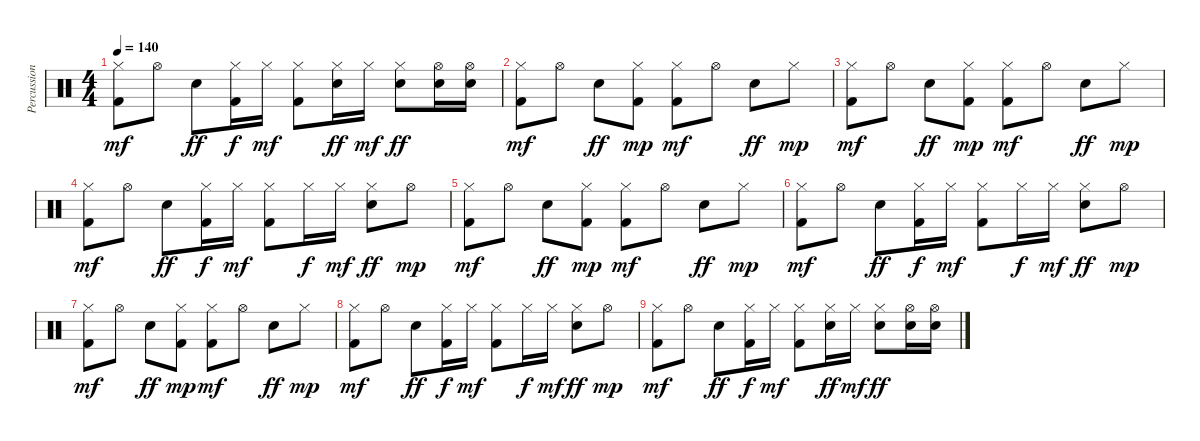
\track ("Percussions" "Percussion") {instrument percussion}
\staff {score}
\articulation defaults
\ts (4 4)
\tempo 140
\clef neutral
\ks c
("Hi-Hat (closed)" "Kick (hit) 2").8{dy mf} "Hi-Hat (open)".8 "Electric Snare (hit)".8{dy ff} ("Hi-Hat (closed)" "Kick (hit) 2").16{dy f} "Hi-Hat (closed)".16{dy mf} ("Hi-Hat (closed)" "Kick (hit) 2").8 ("Hi-Hat (closed)" "Electric Snare (hit)").16{dy ff} "Hi-Hat (closed)".16{dy mf} ("Hi-Hat (closed)" "Electric Snare (hit)").8{dy ff} ("Hi-Hat (open)" "Electric Snare (hit)").16 ("Hi-Hat (open)" "Electric Snare (hit)").16 |
("Hi-Hat (closed)" "Kick (hit) 2").8{dy mf} "Hi-Hat (open)".8 "Electric Snare (hit)".8{dy ff} ("Hi-Hat (closed)" "Kick (hit) 2").8{dy mp} ("Hi-Hat (closed)" "Kick (hit) 2").8{dy mf} "Hi-Hat (open)".8 "Electric Snare (hit)".8{dy ff} "Hi-Hat (closed)".8{dy mp} |
("Hi-Hat (closed)" "Kick (hit) 2").8{dy mf} "Hi-Hat (open)".8 "Electric Snare (hit)".8{dy ff} ("Hi-Hat (closed)" "Kick (hit) 2").8{dy mp} ("Hi-Hat (closed)" "Kick (hit) 2").8{dy mf} "Hi-Hat (open)".8 "Electric Snare (hit)".8{dy ff} "Hi-Hat (closed)".8{dy mp} |
("Hi-Hat (closed)" "Kick (hit) 2").8{dy mf} "Hi-Hat (open)".8 "Electric Snare (hit)".8{dy ff} ("Hi-Hat (closed)" "Kick (hit) 2").16{dy f} "Hi-Hat (closed)".16{dy mf} ("Hi-Hat (closed)" "Kick (hit) 2").8 "Hi-Hat (closed)".16{dy f} "Hi-Hat (closed)".16{dy mf} ("Hi-Hat (closed)" "Electric Snare (hit)").8{dy ff} "Hi-Hat (open)".8{dy mp} |
("Hi-Hat (closed)" "Kick (hit) 2").8{dy mf} "Hi-Hat (open)".8 "Electric Snare (hit)".8{dy ff} ("Hi-Hat (closed)" "Kick (hit) 2").8{dy mp} ("Hi-Hat (closed)" "Kick (hit) 2").8{dy mf} "Hi-Hat (open)".8 "Electric Snare (hit)".8{dy ff} "Hi-Hat (closed)".8{dy mp} |
("Hi-Hat (closed)" "Kick (hit) 2").8{dy mf} "Hi-Hat (open)".8 "Electric Snare (hit)".8{dy ff} ("Hi-Hat (closed)" "Kick (hit) 2").16{dy f} "Hi-Hat (closed)".16{dy mf} ("Hi-Hat (closed)" "Kick (hit) 2").8 "Hi-Hat (closed)".16{dy f} "Hi-Hat (closed)".16{dy mf} ("Hi-Hat (closed)" "Electric Snare (hit)").8{dy ff} "Hi-Hat (open)".8{dy mp} |
("Hi-Hat (closed)" "Kick (hit) 2").8{dy mf} "Hi-Hat (open)".8 "Electric Snare (hit)".8{dy ff} ("Hi-Hat (closed)" "Kick (hit) 2").8{dy mp} ("Hi-Hat (closed)" "Kick (hit) 2").8{dy mf} "Hi-Hat (open)".8 "Electric Snare (hit)".8{dy ff} "Hi-Hat (closed)".8{dy mp} |
("Hi-Hat (closed)" "Kick (hit) 2").8{dy mf} "Hi-Hat (open)".8 "Electric Snare (hit)".8{dy ff} ("Hi-Hat (closed)" "Kick (hit) 2").16{dy f} "Hi-Hat (closed)".16{dy mf} ("Hi-Hat (closed)" "Kick (hit) 2").8 "Hi-Hat (closed)".16{dy f} "Hi-Hat (closed)".16{dy mf} ("Hi-Hat (closed)" "Electric Snare (hit)").8{dy ff} "Hi-Hat (open)".8{dy mp} |
("Hi-Hat (closed)" "Kick (hit) 2").8{dy mf} "Hi-Hat (open)".8 "Electric Snare (hit)".8{dy ff} ("Hi-Hat (closed)" "Kick (hit) 2").16{dy f} "Hi-Hat (closed)".16{dy mf} ("Hi-Hat (closed)" "Kick (hit) 2").8 ("Hi-Hat (closed)" "Electric Snare (hit)").16{dy ff} "Hi-Hat (closed)".16{dy mf} ("Hi-Hat (closed)" "Electric Snare (hit)").8{dy ff} ("Hi-Hat (open)" "Electric Snare (hit)").16 ("Hi-Hat (open)" "Electric Snare (hit)").16
